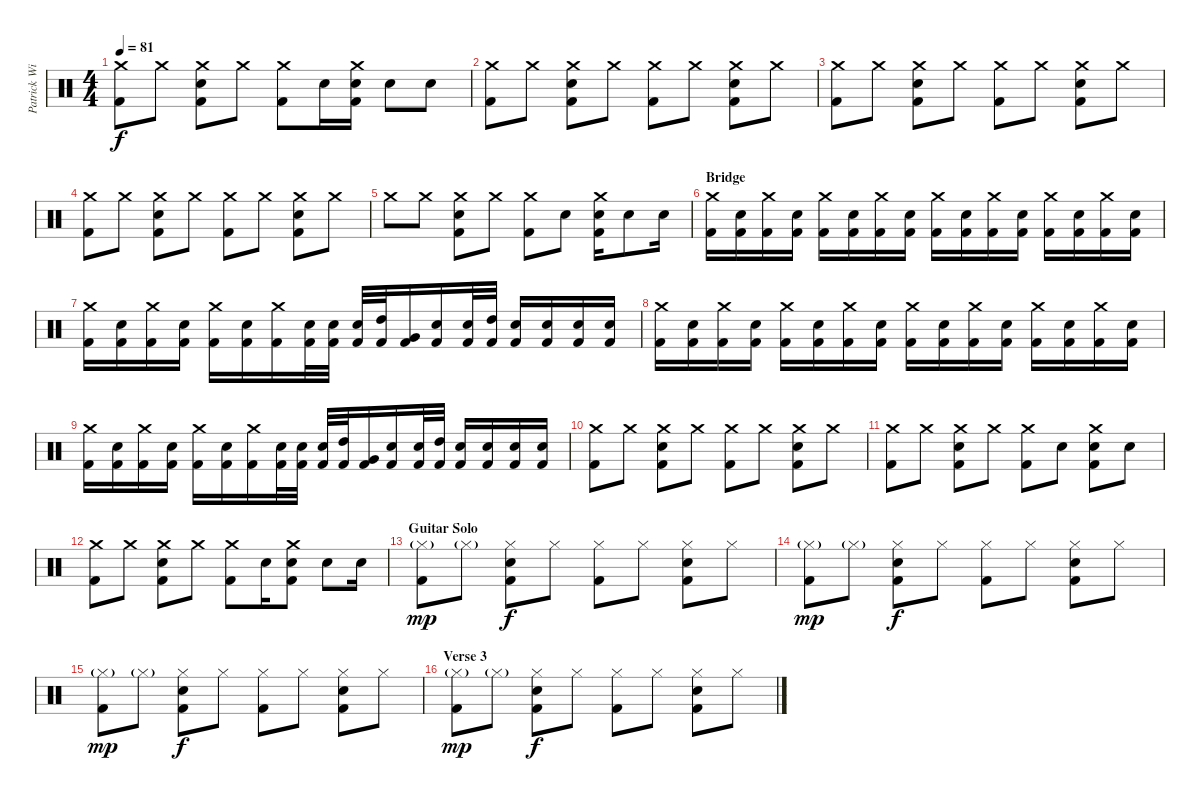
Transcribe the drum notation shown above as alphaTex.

\track ("Patrick Wilson" "Patrick Wi") {instrument percussion}
\staff {score}
\articulation defaults
\ts (4 4)
\tempo 81
\clef neutral
\ks c
("Crash medium (hit)" "Kick (hit) 2").8{dy f} "Crash medium (hit)".8 ("Crash medium (hit)" "Electric Snare (hit)" "Kick (hit) 2").8 "Crash medium (hit)".8 ("Crash medium (hit)" "Kick (hit) 2").8 "Electric Snare (hit)".16 ("Crash medium (hit)" "Electric Snare (hit)" "Kick (hit) 2").16 "Electric Snare (hit)".8 "Electric Snare (hit)".8 |
("Crash medium (hit)" "Kick (hit) 2").8 "Crash medium (hit)".8 ("Crash medium (hit)" "Electric Snare (hit)" "Kick (hit) 2").8 "Crash medium (hit)".8 ("Crash medium (hit)" "Kick (hit) 2").8 "Crash medium (hit)".8 ("Crash medium (hit)" "Electric Snare (hit)" "Kick (hit) 2").8 "Crash medium (hit)".8 |
("Crash medium (hit)" "Kick (hit) 2").8 "Crash medium (hit)".8 ("Crash medium (hit)" "Electric Snare (hit)" "Kick (hit) 2").8 "Crash medium (hit)".8 ("Crash medium (hit)" "Kick (hit) 2").8 "Crash medium (hit)".8 ("Crash medium (hit)" "Electric Snare (hit)" "Kick (hit) 2").8 "Crash medium (hit)".8 |
("Crash medium (hit)" "Kick (hit) 2").8 "Crash medium (hit)".8 ("Crash medium (hit)" "Electric Snare (hit)" "Kick (hit) 2").8 "Crash medium (hit)".8 ("Crash medium (hit)" "Kick (hit) 2").8 "Crash medium (hit)".8 ("Crash medium (hit)" "Electric Snare (hit)" "Kick (hit) 2").8 "Crash medium (hit)".8 |
"Crash medium (hit)".8 "Crash medium (hit)".8 ("Crash medium (hit)" "Electric Snare (hit)" "Kick (hit) 2").8 "Crash medium (hit)".8 ("Crash medium (hit)" "Kick (hit) 2").8 "Electric Snare (hit)".8 ("Crash medium (hit)" "Electric Snare (hit)" "Kick (hit) 2").16 "Electric Snare (hit)".8 "Electric Snare (hit)".16 |
\section ("" "Bridge")
("Crash medium (hit)" "Kick (hit) 2").16 ("Electric Snare (hit)" "Kick (hit) 2").16 ("Crash medium (hit)" "Kick (hit) 2").16 ("Electric Snare (hit)" "Kick (hit) 2").16 ("Crash medium (hit)" "Kick (hit) 2").16 ("Electric Snare (hit)" "Kick (hit) 2").16 ("Crash medium (hit)" "Kick (hit) 2").16 ("Electric Snare (hit)" "Kick (hit) 2").16 ("Crash medium (hit)" "Kick (hit) 2").16 ("Electric Snare (hit)" "Kick (hit) 2").16 ("Crash medium (hit)" "Kick (hit) 2").16 ("Electric Snare (hit)" "Kick (hit) 2").16 ("Crash medium (hit)" "Kick (hit) 2").16 ("Electric Snare (hit)" "Kick (hit) 2").16 ("Crash medium (hit)" "Kick (hit) 2").16 ("Electric Snare (hit)" "Kick (hit) 2").16 |
("Crash medium (hit)" "Kick (hit) 2").16 ("Electric Snare (hit)" "Kick (hit) 2").16 ("Crash medium (hit)" "Kick (hit) 2").16 ("Electric Snare (hit)" "Kick (hit) 2").16 ("Crash medium (hit)" "Kick (hit) 2").16 ("Electric Snare (hit)" "Kick (hit) 2").16 ("Crash medium (hit)" "Kick (hit) 2").16 ("Electric Snare (hit)" "Kick (hit) 2").32 ("Electric Snare (hit)" "Kick (hit) 2").32 ("Electric Snare (hit)" "Kick (hit) 2").32 ("High Tom (hit)" "Kick (hit) 2").32 ("Very Low Tom (hit)" "Kick (hit) 2").16 ("Electric Snare (hit)" "Kick (hit) 2").16 ("Electric Snare (hit)" "Kick (hit) 2").32 ("High Tom (hit)" "Kick (hit) 2").32 ("Electric Snare (hit)" "Kick (hit) 2").16 ("Electric Snare (hit)" "Kick (hit) 2").16 ("Electric Snare (hit)" "Kick (hit) 2").16 ("Electric Snare (hit)" "Kick (hit) 2").16 |
("Crash medium (hit)" "Kick (hit) 2").16 ("Electric Snare (hit)" "Kick (hit) 2").16 ("Crash medium (hit)" "Kick (hit) 2").16 ("Electric Snare (hit)" "Kick (hit) 2").16 ("Crash medium (hit)" "Kick (hit) 2").16 ("Electric Snare (hit)" "Kick (hit) 2").16 ("Crash medium (hit)" "Kick (hit) 2").16 ("Electric Snare (hit)" "Kick (hit) 2").16 ("Crash medium (hit)" "Kick (hit) 2").16 ("Electric Snare (hit)" "Kick (hit) 2").16 ("Crash medium (hit)" "Kick (hit) 2").16 ("Electric Snare (hit)" "Kick (hit) 2").16 ("Crash medium (hit)" "Kick (hit) 2").16 ("Electric Snare (hit)" "Kick (hit) 2").16 ("Crash medium (hit)" "Kick (hit) 2").16 ("Electric Snare (hit)" "Kick (hit) 2").16 |
("Crash medium (hit)" "Kick (hit) 2").16 ("Electric Snare (hit)" "Kick (hit) 2").16 ("Crash medium (hit)" "Kick (hit) 2").16 ("Electric Snare (hit)" "Kick (hit) 2").16 ("Crash medium (hit)" "Kick (hit) 2").16 ("Electric Snare (hit)" "Kick (hit) 2").16 ("Crash medium (hit)" "Kick (hit) 2").16 ("Electric Snare (hit)" "Kick (hit) 2").32 ("Electric Snare (hit)" "Kick (hit) 2").32 ("Electric Snare (hit)" "Kick (hit) 2").32 ("High Tom (hit)" "Kick (hit) 2").32 ("Very Low Tom (hit)" "Kick (hit) 2").16 ("Electric Snare (hit)" "Kick (hit) 2").16 ("Electric Snare (hit)" "Kick (hit) 2").32 ("High Tom (hit)" "Kick (hit) 2").32 ("Electric Snare (hit)" "Kick (hit) 2").16 ("Electric Snare (hit)" "Kick (hit) 2").16 ("Electric Snare (hit)" "Kick (hit) 2").16 ("Electric Snare (hit)" "Kick (hit) 2").16 |
("Crash medium (hit)" "Kick (hit) 2").8 "Crash medium (hit)".8 ("Crash medium (hit)" "Electric Snare (hit)" "Kick (hit) 2").8 "Crash medium (hit)".8 ("Crash medium (hit)" "Kick (hit) 2").8 "Crash medium (hit)".8 ("Crash medium (hit)" "Electric Snare (hit)" "Kick (hit) 2").8 "Crash medium (hit)".8 |
("Crash medium (hit)" "Kick (hit) 2").8 "Crash medium (hit)".8 ("Crash medium (hit)" "Electric Snare (hit)" "Kick (hit) 2").8 "Crash medium (hit)".8 ("Crash medium (hit)" "Kick (hit) 2").8 "Electric Snare (hit)".8 ("Crash medium (hit)" "Electric Snare (hit)" "Kick (hit) 2").8 "Electric Snare (hit)".8 |
("Crash medium (hit)" "Kick (hit) 2").8 "Crash medium (hit)".8 ("Crash medium (hit)" "Electric Snare (hit)" "Kick (hit) 2").8 "Crash medium (hit)".8 ("Crash medium (hit)" "Kick (hit) 2").8 "Electric Snare (hit)".16 ("Crash medium (hit)" "Electric Snare (hit)" "Kick (hit) 2").8 "Electric Snare (hit)".8 "Electric Snare (hit)".16 |
\section ("" "Guitar Solo")
("Hi-Hat (closed)"{g} "Kick (hit) 2").8{dy mp} "Hi-Hat (closed)"{g}.8 ("Hi-Hat (closed)" "Electric Snare (hit)" "Kick (hit) 2").8{dy f} "Hi-Hat (closed)".8 ("Hi-Hat (closed)" "Kick (hit) 2").8 "Hi-Hat (closed)".8 ("Hi-Hat (closed)" "Electric Snare (hit)" "Kick (hit) 2").8 "Hi-Hat (closed)".8 |
("Hi-Hat (closed)"{g} "Kick (hit) 2").8{dy mp} "Hi-Hat (closed)"{g}.8 ("Hi-Hat (closed)" "Electric Snare (hit)" "Kick (hit) 2").8{dy f} "Hi-Hat (closed)".8 ("Hi-Hat (closed)" "Kick (hit) 2").8 "Hi-Hat (closed)".8 ("Hi-Hat (closed)" "Electric Snare (hit)" "Kick (hit) 2").8 "Hi-Hat (closed)".8 |
("Hi-Hat (closed)"{g} "Kick (hit) 2").8{dy mp} "Hi-Hat (closed)"{g}.8 ("Hi-Hat (closed)" "Electric Snare (hit)" "Kick (hit) 2").8{dy f} "Hi-Hat (closed)".8 ("Hi-Hat (closed)" "Kick (hit) 2").8 "Hi-Hat (closed)".8 ("Hi-Hat (closed)" "Electric Snare (hit)" "Kick (hit) 2").8 "Hi-Hat (closed)".8 |
\section ("" "Verse 3")
("Hi-Hat (closed)"{g} "Kick (hit) 2").8{dy mp} "Hi-Hat (closed)"{g}.8 ("Hi-Hat (closed)" "Electric Snare (hit)" "Kick (hit) 2").8{dy f} "Hi-Hat (closed)".8 ("Hi-Hat (closed)" "Kick (hit) 2").8 "Hi-Hat (closed)".8 ("Hi-Hat (closed)" "Electric Snare (hit)" "Kick (hit) 2").8 "Hi-Hat (closed)".8
